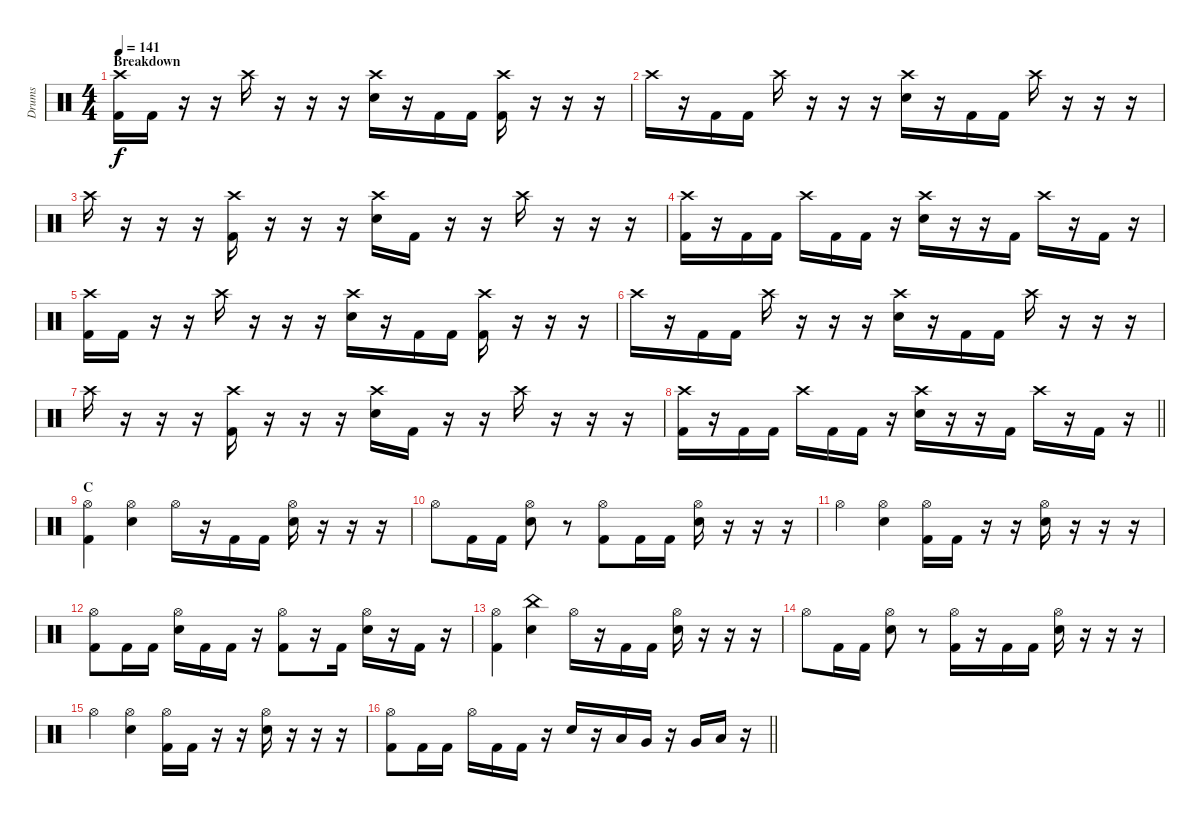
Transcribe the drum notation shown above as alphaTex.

\track ("Drums" "Drums") {instrument percussion}
\staff {score}
\articulation defaults
\ts (4 4)
\section ("" "Breakdown")
\tempo 141
\clef neutral
\ks c
("Crash high (hit)" "Kick (hit) 2").16{dy f} "Kick (hit) 2".16 r.16 r.16 "Crash high (hit)".16 r.16 r.16 r.16 ("Crash high (hit)" "Electric Snare (hit)").16 r.16 "Kick (hit) 2".16 "Kick (hit) 2".16 ("Crash high (hit)" "Kick (hit) 2").16 r.16 r.16 r.16 |
"Crash high (hit)".16 r.16 "Kick (hit) 2".16 "Kick (hit) 2".16 "Crash high (hit)".16 r.16 r.16 r.16 ("Crash high (hit)" "Electric Snare (hit)").16 r.16 "Kick (hit) 2".16 "Kick (hit) 2".16 "Crash high (hit)".16 r.16 r.16 r.16 |
"Crash high (hit)".16 r.16 r.16 r.16 ("Crash high (hit)" "Kick (hit) 2").16 r.16 r.16 r.16 ("Crash high (hit)" "Electric Snare (hit)").16 "Kick (hit) 2".16 r.16 r.16 "Crash high (hit)".16 r.16 r.16 r.16 |
("Crash high (hit)" "Kick (hit) 2").16 r.16 "Kick (hit) 2".16 "Kick (hit) 2".16 "Crash high (hit)".16 "Kick (hit) 2".16 "Kick (hit) 2".16 r.16 ("Crash high (hit)" "Electric Snare (hit)").16 r.16 r.16 "Kick (hit) 2".16 "Crash high (hit)".16 r.16 "Kick (hit) 2".16 r.16 |
("Crash high (hit)" "Kick (hit) 2").16 "Kick (hit) 2".16 r.16 r.16 "Crash high (hit)".16 r.16 r.16 r.16 ("Crash high (hit)" "Electric Snare (hit)").16 r.16 "Kick (hit) 2".16 "Kick (hit) 2".16 ("Crash high (hit)" "Kick (hit) 2").16 r.16 r.16 r.16 |
"Crash high (hit)".16 r.16 "Kick (hit) 2".16 "Kick (hit) 2".16 "Crash high (hit)".16 r.16 r.16 r.16 ("Crash high (hit)" "Electric Snare (hit)").16 r.16 "Kick (hit) 2".16 "Kick (hit) 2".16 "Crash high (hit)".16 r.16 r.16 r.16 |
"Crash high (hit)".16 r.16 r.16 r.16 ("Crash high (hit)" "Kick (hit) 2").16 r.16 r.16 r.16 ("Crash high (hit)" "Electric Snare (hit)").16 "Kick (hit) 2".16 r.16 r.16 "Crash high (hit)".16 r.16 r.16 r.16 |
\barLineRight lightlight
("Crash high (hit)" "Kick (hit) 2").16 r.16 "Kick (hit) 2".16 "Kick (hit) 2".16 "Crash high (hit)".16 "Kick (hit) 2".16 "Kick (hit) 2".16 r.16 ("Crash high (hit)" "Electric Snare (hit)").16 r.16 r.16 "Kick (hit) 2".16 "Crash high (hit)".16 r.16 "Kick (hit) 2".16 r.16 |
\section ("" "C")
("Hi-Hat (open)" "Kick (hit) 2").4 ("Hi-Hat (open)" "Electric Snare (hit)").4 "Hi-Hat (open)".16 r.16 "Kick (hit) 2".16 "Kick (hit) 2".16 ("Hi-Hat (open)" "Electric Snare (hit)").16 r.16 r.16 r.16 |
"Hi-Hat (open)".8 "Kick (hit) 2".16 "Kick (hit) 2".16 ("Hi-Hat (open)" "Electric Snare (hit)").8 r.8 ("Hi-Hat (open)" "Kick (hit) 2").8 "Kick (hit) 2".16 "Kick (hit) 2".16 ("Hi-Hat (open)" "Electric Snare (hit)").16 r.16 r.16 r.16 |
"Hi-Hat (open)".4 ("Hi-Hat (open)" "Electric Snare (hit)").4 ("Hi-Hat (open)" "Kick (hit) 2").16 "Kick (hit) 2".16 r.16 r.16 ("Hi-Hat (open)" "Electric Snare (hit)").16 r.16 r.16 r.16 |
("Hi-Hat (open)" "Kick (hit) 2").8 "Kick (hit) 2".16 "Kick (hit) 2".16 ("Hi-Hat (open)" "Electric Snare (hit)").16 "Kick (hit) 2".16 "Kick (hit) 2".16 r.16 ("Hi-Hat (open)" "Kick (hit) 2").8 r.16 "Kick (hit) 2".16 ("Hi-Hat (open)" "Electric Snare (hit)").16 r.16 "Kick (hit) 2".16 r.16 |
("Hi-Hat (open)" "Kick (hit) 2").4 ("China (hit)" "Electric Snare (hit)").4 "Hi-Hat (open)".16 r.16 "Kick (hit) 2".16 "Kick (hit) 2".16 ("Hi-Hat (open)" "Electric Snare (hit)").16 r.16 r.16 r.16 |
"Hi-Hat (open)".8 "Kick (hit) 2".16 "Kick (hit) 2".16 ("Hi-Hat (open)" "Electric Snare (hit)").8 r.8 ("Hi-Hat (open)" "Kick (hit) 2").16 r.16 "Kick (hit) 2".16 "Kick (hit) 2".16 ("Hi-Hat (open)" "Electric Snare (hit)").16 r.16 r.16 r.16 |
"Hi-Hat (open)".4 ("Hi-Hat (open)" "Electric Snare (hit)").4 ("Hi-Hat (open)" "Kick (hit) 2").16 "Kick (hit) 2".16 r.16 r.16 ("Hi-Hat (open)" "Electric Snare (hit)").16 r.16 r.16 r.16 |
\barLineRight lightlight
("Hi-Hat (open)" "Kick (hit) 2").8 "Kick (hit) 2".16 "Kick (hit) 2".16 "Hi-Hat (open)".16 "Kick (hit) 2".16 "Kick (hit) 2".16 r.16 "Electric Snare (hit)".16 r.16 "Low Tom (hit)".16 "Very Low Tom (hit)".16 r.16 "Very Low Tom (hit)".16 "Low Floor Tom (hit)".16 r.16
